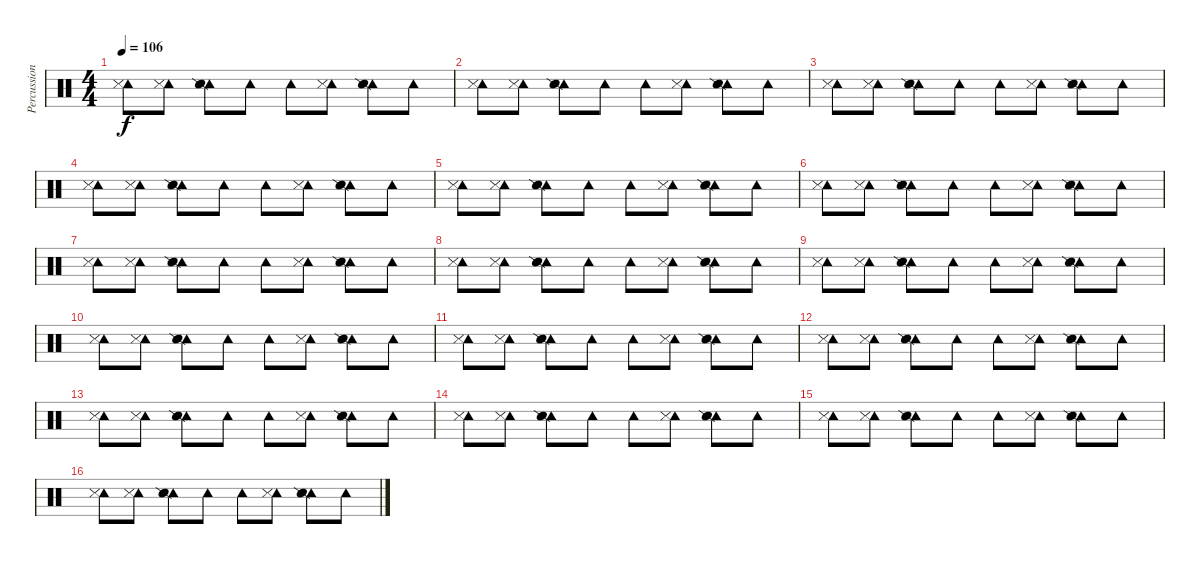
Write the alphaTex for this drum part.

\track ("Percussion" "Percussion") {instrument percussion}
\staff {score}
\articulation defaults
\ts (4 4)
\tempo 106
\clef neutral
\ks c
("Tambourine (hit)" "Snare (side stick) 3").8{dy f} ("Tambourine (hit)" "Snare (side stick) 3").8 ("Tambourine (hit)" "Snare (side stick) 2").8 "Tambourine (hit)".8 "Tambourine (hit)".8 ("Tambourine (hit)" "Snare (side stick) 3").8 ("Tambourine (hit)" "Snare (side stick) 2").8 "Tambourine (hit)".8 |
("Tambourine (hit)" "Snare (side stick) 3").8 ("Tambourine (hit)" "Snare (side stick) 3").8 ("Tambourine (hit)" "Snare (side stick) 2").8 "Tambourine (hit)".8 "Tambourine (hit)".8 ("Tambourine (hit)" "Snare (side stick) 3").8 ("Tambourine (hit)" "Snare (side stick) 2").8 "Tambourine (hit)".8 |
("Tambourine (hit)" "Snare (side stick) 3").8 ("Tambourine (hit)" "Snare (side stick) 3").8 ("Tambourine (hit)" "Snare (side stick) 2").8 "Tambourine (hit)".8 "Tambourine (hit)".8 ("Tambourine (hit)" "Snare (side stick) 3").8 ("Tambourine (hit)" "Snare (side stick) 2").8 "Tambourine (hit)".8 |
("Tambourine (hit)" "Snare (side stick) 3").8 ("Tambourine (hit)" "Snare (side stick) 3").8 ("Tambourine (hit)" "Snare (side stick) 2").8 "Tambourine (hit)".8 "Tambourine (hit)".8 ("Tambourine (hit)" "Snare (side stick) 3").8 ("Tambourine (hit)" "Snare (side stick) 2").8 "Tambourine (hit)".8 |
("Tambourine (hit)" "Snare (side stick) 3").8 ("Tambourine (hit)" "Snare (side stick) 3").8 ("Tambourine (hit)" "Snare (side stick) 2").8 "Tambourine (hit)".8 "Tambourine (hit)".8 ("Tambourine (hit)" "Snare (side stick) 3").8 ("Tambourine (hit)" "Snare (side stick) 2").8 "Tambourine (hit)".8 |
("Tambourine (hit)" "Snare (side stick) 3").8 ("Tambourine (hit)" "Snare (side stick) 3").8 ("Tambourine (hit)" "Snare (side stick) 2").8 "Tambourine (hit)".8 "Tambourine (hit)".8 ("Tambourine (hit)" "Snare (side stick) 3").8 ("Tambourine (hit)" "Snare (side stick) 2").8 "Tambourine (hit)".8 |
("Tambourine (hit)" "Snare (side stick) 3").8 ("Tambourine (hit)" "Snare (side stick) 3").8 ("Tambourine (hit)" "Snare (side stick) 2").8 "Tambourine (hit)".8 "Tambourine (hit)".8 ("Tambourine (hit)" "Snare (side stick) 3").8 ("Tambourine (hit)" "Snare (side stick) 2").8 "Tambourine (hit)".8 |
("Tambourine (hit)" "Snare (side stick) 3").8 ("Tambourine (hit)" "Snare (side stick) 3").8 ("Tambourine (hit)" "Snare (side stick) 2").8 "Tambourine (hit)".8 "Tambourine (hit)".8 ("Tambourine (hit)" "Snare (side stick) 3").8 ("Tambourine (hit)" "Snare (side stick) 2").8 "Tambourine (hit)".8 |
("Tambourine (hit)" "Snare (side stick) 3").8 ("Tambourine (hit)" "Snare (side stick) 3").8 ("Tambourine (hit)" "Snare (side stick) 2").8 "Tambourine (hit)".8 "Tambourine (hit)".8 ("Tambourine (hit)" "Snare (side stick) 3").8 ("Tambourine (hit)" "Snare (side stick) 2").8 "Tambourine (hit)".8 |
("Tambourine (hit)" "Snare (side stick) 3").8 ("Tambourine (hit)" "Snare (side stick) 3").8 ("Tambourine (hit)" "Snare (side stick) 2").8 "Tambourine (hit)".8 "Tambourine (hit)".8 ("Tambourine (hit)" "Snare (side stick) 3").8 ("Tambourine (hit)" "Snare (side stick) 2").8 "Tambourine (hit)".8 |
("Tambourine (hit)" "Snare (side stick) 3").8 ("Tambourine (hit)" "Snare (side stick) 3").8 ("Tambourine (hit)" "Snare (side stick) 2").8 "Tambourine (hit)".8 "Tambourine (hit)".8 ("Tambourine (hit)" "Snare (side stick) 3").8 ("Tambourine (hit)" "Snare (side stick) 2").8 "Tambourine (hit)".8 |
("Tambourine (hit)" "Snare (side stick) 3").8 ("Tambourine (hit)" "Snare (side stick) 3").8 ("Tambourine (hit)" "Snare (side stick) 2").8 "Tambourine (hit)".8 "Tambourine (hit)".8 ("Tambourine (hit)" "Snare (side stick) 3").8 ("Tambourine (hit)" "Snare (side stick) 2").8 "Tambourine (hit)".8 |
("Tambourine (hit)" "Snare (side stick) 3").8 ("Tambourine (hit)" "Snare (side stick) 3").8 ("Tambourine (hit)" "Snare (side stick) 2").8 "Tambourine (hit)".8 "Tambourine (hit)".8 ("Tambourine (hit)" "Snare (side stick) 3").8 ("Tambourine (hit)" "Snare (side stick) 2").8 "Tambourine (hit)".8 |
("Tambourine (hit)" "Snare (side stick) 3").8 ("Tambourine (hit)" "Snare (side stick) 3").8 ("Tambourine (hit)" "Snare (side stick) 2").8 "Tambourine (hit)".8 "Tambourine (hit)".8 ("Tambourine (hit)" "Snare (side stick) 3").8 ("Tambourine (hit)" "Snare (side stick) 2").8 "Tambourine (hit)".8 |
("Tambourine (hit)" "Snare (side stick) 3").8 ("Tambourine (hit)" "Snare (side stick) 3").8 ("Tambourine (hit)" "Snare (side stick) 2").8 "Tambourine (hit)".8 "Tambourine (hit)".8 ("Tambourine (hit)" "Snare (side stick) 3").8 ("Tambourine (hit)" "Snare (side stick) 2").8 "Tambourine (hit)".8 |
("Tambourine (hit)" "Snare (side stick) 3").8 ("Tambourine (hit)" "Snare (side stick) 3").8 ("Tambourine (hit)" "Snare (side stick) 2").8 "Tambourine (hit)".8 "Tambourine (hit)".8 ("Tambourine (hit)" "Snare (side stick) 3").8 ("Tambourine (hit)" "Snare (side stick) 2").8 "Tambourine (hit)".8
